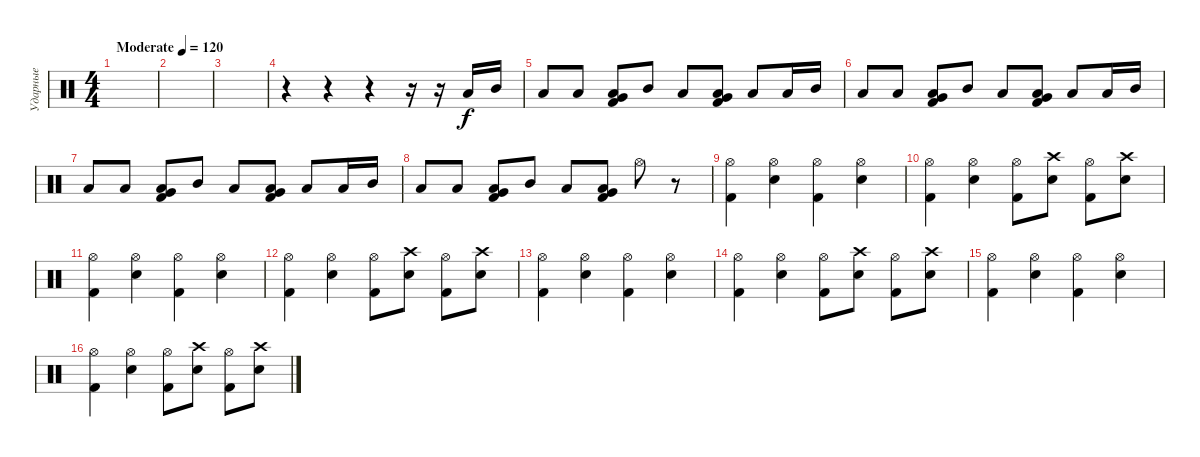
\track ("Ударные" "Ударные") {instrument percussion}
\staff {score}
\articulation defaults
\ts (4 4)
\tempo (120 "Moderate")
\clef neutral
\ks c
|
|
|
r.4 r.4 r.4 r.16 r.16 "Low Tom (hit)".16 "Mid Tom (hit)".16 |
"Low Tom (hit)".8 "Low Tom (hit)".8 ("Low Tom (hit)" "Very Low Tom (hit)" "Kick (hit) 2").8 "Mid Tom (hit)".8 "Low Tom (hit)".8 ("Low Tom (hit)" "Very Low Tom (hit)" "Kick (hit) 2").8 "Low Tom (hit)".8 "Low Tom (hit)".16 "Mid Tom (hit)".16 |
"Low Tom (hit)".8 "Low Tom (hit)".8 ("Low Tom (hit)" "Very Low Tom (hit)" "Kick (hit) 2").8 "Mid Tom (hit)".8 "Low Tom (hit)".8 ("Low Tom (hit)" "Very Low Tom (hit)" "Kick (hit) 2").8 "Low Tom (hit)".8 "Low Tom (hit)".16 "Mid Tom (hit)".16 |
"Low Tom (hit)".8 "Low Tom (hit)".8 ("Low Tom (hit)" "Very Low Tom (hit)" "Kick (hit) 2").8 "Mid Tom (hit)".8 "Low Tom (hit)".8 ("Low Tom (hit)" "Very Low Tom (hit)" "Kick (hit) 2").8 "Low Tom (hit)".8 "Low Tom (hit)".16 "Mid Tom (hit)".16 |
"Low Tom (hit)".8 "Low Tom (hit)".8 ("Low Tom (hit)" "Very Low Tom (hit)" "Kick (hit) 2").8 "Mid Tom (hit)".8 "Low Tom (hit)".8 ("Low Tom (hit)" "Very Low Tom (hit)" "Kick (hit) 2").8 "Hi-Hat (open)".8 r.8 |
("Hi-Hat (open)" "Kick (hit) 2").4 ("Hi-Hat (open)" "Electric Snare (hit)").4 ("Hi-Hat (open)" "Kick (hit) 2").4 ("Hi-Hat (open)" "Electric Snare (hit)").4 |
("Hi-Hat (open)" "Kick (hit) 2").4 ("Hi-Hat (open)" "Electric Snare (hit)").4 ("Hi-Hat (open)" "Kick (hit) 2").8 ("Crash high (hit)" "Electric Snare (hit)").8 ("Hi-Hat (open)" "Kick (hit) 2").8 ("Crash high (hit)" "Electric Snare (hit)").8 |
("Hi-Hat (open)" "Kick (hit) 2").4 ("Hi-Hat (open)" "Electric Snare (hit)").4 ("Hi-Hat (open)" "Kick (hit) 2").4 ("Hi-Hat (open)" "Electric Snare (hit)").4 |
("Hi-Hat (open)" "Kick (hit) 2").4 ("Hi-Hat (open)" "Electric Snare (hit)").4 ("Hi-Hat (open)" "Kick (hit) 2").8 ("Crash high (hit)" "Electric Snare (hit)").8 ("Hi-Hat (open)" "Kick (hit) 2").8 ("Crash high (hit)" "Electric Snare (hit)").8 |
("Hi-Hat (open)" "Kick (hit) 2").4 ("Hi-Hat (open)" "Electric Snare (hit)").4 ("Hi-Hat (open)" "Kick (hit) 2").4 ("Hi-Hat (open)" "Electric Snare (hit)").4 |
("Hi-Hat (open)" "Kick (hit) 2").4 ("Hi-Hat (open)" "Electric Snare (hit)").4 ("Hi-Hat (open)" "Kick (hit) 2").8 ("Crash high (hit)" "Electric Snare (hit)").8 ("Hi-Hat (open)" "Kick (hit) 2").8 ("Crash high (hit)" "Electric Snare (hit)").8 |
("Hi-Hat (open)" "Kick (hit) 2").4 ("Hi-Hat (open)" "Electric Snare (hit)").4 ("Hi-Hat (open)" "Kick (hit) 2").4 ("Hi-Hat (open)" "Electric Snare (hit)").4 |
("Hi-Hat (open)" "Kick (hit) 2").4 ("Hi-Hat (open)" "Electric Snare (hit)").4 ("Hi-Hat (open)" "Kick (hit) 2").8 ("Crash high (hit)" "Electric Snare (hit)").8 ("Hi-Hat (open)" "Kick (hit) 2").8 ("Crash high (hit)" "Electric Snare (hit)").8
